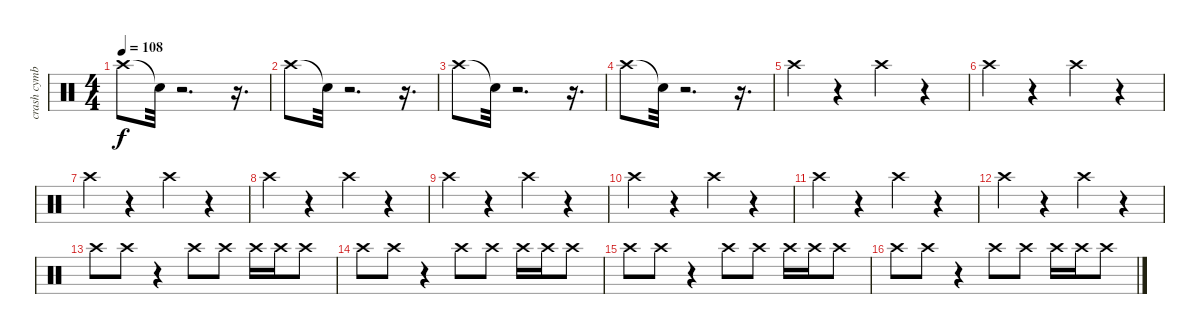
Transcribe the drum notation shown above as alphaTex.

\track ("crash cymbal        " "crash cymb") {instrument percussion}
\staff {score}
\articulation defaults
\ts (4 4)
\tempo 108
\clef neutral
\ks c "Crash high (hit)".8{dy f} "Snare (hit)"{t}.32
r.2{d} r.16{d} |
"Crash high (hit)".8 "Snare (hit)"{t}.32 r.2{d} r.16{d} |
"Crash high (hit)".8 "Snare (hit)"{t}.32 r.2{d} r.16{d} |
"Crash high (hit)".8 "Snare (hit)"{t}.32 r.2{d} r.16{d} |
"Crash high (hit)".4 r.4 "Crash high (hit)".4 r.4 |
"Crash high (hit)".4 r.4 "Crash high (hit)".4 r.4 |
"Crash high (hit)".4 r.4 "Crash high (hit)".4 r.4 |
"Crash high (hit)".4 r.4 "Crash high (hit)".4 r.4 |
"Crash high (hit)".4 r.4 "Crash high (hit)".4 r.4 |
"Crash high (hit)".4 r.4 "Crash high (hit)".4 r.4 |
"Crash high (hit)".4 r.4 "Crash high (hit)".4 r.4 |
"Crash high (hit)".4 r.4 "Crash high (hit)".4 r.4 |
"Crash high (hit)".8 "Crash high (hit)".8 r.4 "Crash high (hit)".8 "Crash high (hit)".8 "Crash high (hit)".16 "Crash high (hit)".16 "Crash high (hit)".8 |
"Crash high (hit)".8 "Crash high (hit)".8 r.4 "Crash high (hit)".8 "Crash high (hit)".8 "Crash high (hit)".16 "Crash high (hit)".16 "Crash high (hit)".8 |
"Crash high (hit)".8 "Crash high (hit)".8 r.4 "Crash high (hit)".8 "Crash high (hit)".8 "Crash high (hit)".16 "Crash high (hit)".16 "Crash high (hit)".8 |
"Crash high (hit)".8 "Crash high (hit)".8 r.4 "Crash high (hit)".8 "Crash high (hit)".8 "Crash high (hit)".16 "Crash high (hit)".16 "Crash high (hit)".8
